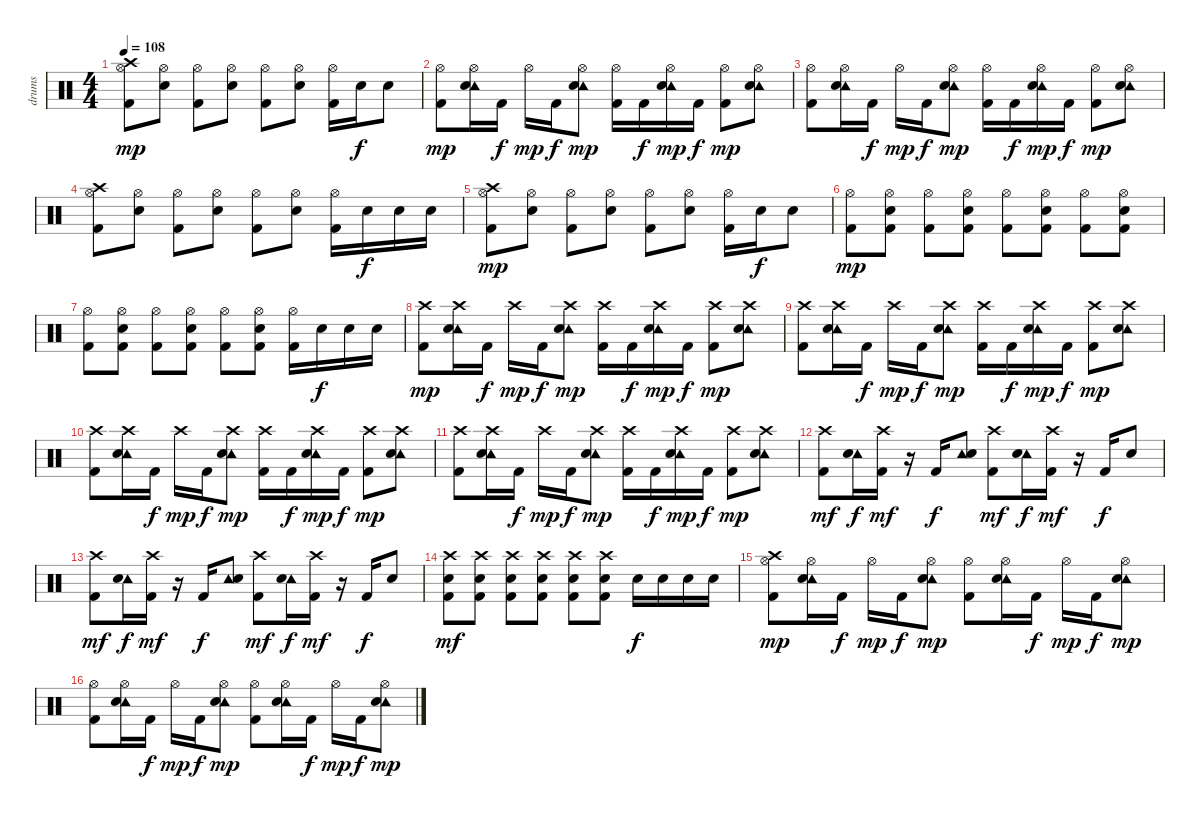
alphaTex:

\track ("drums" "drums") {instrument percussion}
\staff {score}
\articulation defaults
\ts (4 4)
\tempo 108
\clef neutral
\ks c
("Crash high (hit)" "Hi-Hat (open)" "Kick (hit) 2").8{dy mp} ("Hi-Hat (open)" "Snare (hit) 2").8 ("Hi-Hat (open)" "Kick (hit) 2").8 ("Hi-Hat (open)" "Snare (hit) 2").8 ("Hi-Hat (open)" "Kick (hit) 2").8 ("Hi-Hat (open)" "Snare (hit) 2").8 ("Hi-Hat (open)" "Kick (hit) 2").16 "Snare (hit) 2".16{dy f} "Snare (hit) 2".8 |
("Hi-Hat (open)" "Kick (hit) 2").8{dy mp} ("Tambourine (hit)" "Hi-Hat (open)" "Snare (hit) 2").16 "Kick (hit) 2".16{dy f} "Hi-Hat (open)".16{dy mp} "Kick (hit) 2".16{dy f} ("Tambourine (hit)" "Hi-Hat (open)" "Snare (hit) 2").8{dy mp} ("Hi-Hat (open)" "Kick (hit) 2").16 "Kick (hit) 2".16{dy f} ("Tambourine (hit)" "Hi-Hat (open)" "Snare (hit) 2").16{dy mp} "Kick (hit) 2".16{dy f} ("Hi-Hat (open)" "Kick (hit) 2").8{dy mp} ("Tambourine (hit)" "Hi-Hat (open)" "Snare (hit) 2").8 |
("Hi-Hat (open)" "Kick (hit) 2").8 ("Tambourine (hit)" "Hi-Hat (open)" "Snare (hit) 2").16 "Kick (hit) 2".16{dy f} "Hi-Hat (open)".16{dy mp} "Kick (hit) 2".16{dy f} ("Tambourine (hit)" "Hi-Hat (open)" "Snare (hit) 2").8{dy mp} ("Hi-Hat (open)" "Kick (hit) 2").16 "Kick (hit) 2".16{dy f} ("Tambourine (hit)" "Hi-Hat (open)" "Snare (hit) 2").16{dy mp} "Kick (hit) 2".16{dy f} ("Hi-Hat (open)" "Kick (hit) 2").8{dy mp} ("Tambourine (hit)" "Hi-Hat (open)" "Snare (hit) 2").8 |
("Crash high (hit)" "Hi-Hat (open)" "Kick (hit) 2").8 ("Hi-Hat (open)" "Snare (hit) 2").8 ("Hi-Hat (open)" "Kick (hit) 2").8 ("Hi-Hat (open)" "Snare (hit) 2").8 ("Hi-Hat (open)" "Kick (hit) 2").8 ("Hi-Hat (open)" "Snare (hit) 2").8 ("Hi-Hat (open)" "Kick (hit) 2").16 "Snare (hit) 2".16{dy f} "Snare (hit) 2".16 "Snare (hit) 2".16 |
("Crash high (hit)" "Hi-Hat (open)" "Kick (hit) 2").8{dy mp} ("Hi-Hat (open)" "Snare (hit) 2").8 ("Hi-Hat (open)" "Kick (hit) 2").8 ("Hi-Hat (open)" "Snare (hit) 2").8 ("Hi-Hat (open)" "Kick (hit) 2").8 ("Hi-Hat (open)" "Snare (hit) 2").8 ("Hi-Hat (open)" "Kick (hit) 2").16 "Snare (hit) 2".16{dy f} "Snare (hit) 2".8 |
("Hi-Hat (open)" "Kick (hit) 2").8{dy mp} ("Snare (hit) 2" "Hi-Hat (open)" "Kick (hit) 2").8 ("Hi-Hat (open)" "Kick (hit) 2").8 ("Snare (hit) 2" "Hi-Hat (open)" "Kick (hit) 2").8 ("Hi-Hat (open)" "Kick (hit) 2").8 ("Snare (hit) 2" "Hi-Hat (open)" "Kick (hit) 2").8 ("Hi-Hat (open)" "Kick (hit) 2").8 ("Snare (hit) 2" "Hi-Hat (open)" "Kick (hit) 2").8 |
("Hi-Hat (open)" "Kick (hit) 2").8 ("Snare (hit) 2" "Hi-Hat (open)" "Kick (hit) 2").8 ("Hi-Hat (open)" "Kick (hit) 2").8 ("Snare (hit) 2" "Hi-Hat (open)" "Kick (hit) 2").8 ("Hi-Hat (open)" "Kick (hit) 2").8 ("Snare (hit) 2" "Hi-Hat (open)" "Kick (hit) 2").8 ("Hi-Hat (open)" "Kick (hit) 2").16 "Snare (hit) 2".16{dy f} "Snare (hit) 2".16 "Snare (hit) 2".16 |
("Crash high (hit)" "Kick (hit) 2").8{dy mp} ("Tambourine (hit)" "Crash high (hit)" "Snare (hit) 2").16 "Kick (hit) 2".16{dy f} "Crash high (hit)".16{dy mp} "Kick (hit) 2".16{dy f} ("Tambourine (hit)" "Crash high (hit)" "Snare (hit) 2").8{dy mp} ("Crash high (hit)" "Kick (hit) 2").16 "Kick (hit) 2".16{dy f} ("Tambourine (hit)" "Crash high (hit)" "Snare (hit) 2").16{dy mp} "Kick (hit) 2".16{dy f} ("Crash high (hit)" "Kick (hit) 2").8{dy mp} ("Tambourine (hit)" "Crash high (hit)" "Snare (hit) 2").8 |
("Crash high (hit)" "Kick (hit) 2").8 ("Tambourine (hit)" "Crash high (hit)" "Snare (hit) 2").16 "Kick (hit) 2".16{dy f} "Crash high (hit)".16{dy mp} "Kick (hit) 2".16{dy f} ("Tambourine (hit)" "Crash high (hit)" "Snare (hit) 2").8{dy mp} ("Crash high (hit)" "Kick (hit) 2").16 "Kick (hit) 2".16{dy f} ("Tambourine (hit)" "Crash high (hit)" "Snare (hit) 2").16{dy mp} "Kick (hit) 2".16{dy f} ("Crash high (hit)" "Kick (hit) 2").8{dy mp} ("Tambourine (hit)" "Crash high (hit)" "Snare (hit) 2").8 |
("Crash high (hit)" "Kick (hit) 2").8 ("Tambourine (hit)" "Crash high (hit)" "Snare (hit) 2").16 "Kick (hit) 2".16{dy f} "Crash high (hit)".16{dy mp} "Kick (hit) 2".16{dy f} ("Tambourine (hit)" "Crash high (hit)" "Snare (hit) 2").8{dy mp} ("Crash high (hit)" "Kick (hit) 2").16 "Kick (hit) 2".16{dy f} ("Tambourine (hit)" "Crash high (hit)" "Snare (hit) 2").16{dy mp} "Kick (hit) 2".16{dy f} ("Crash high (hit)" "Kick (hit) 2").8{dy mp} ("Tambourine (hit)" "Crash high (hit)" "Snare (hit) 2").8 |
("Crash high (hit)" "Kick (hit) 2").8 ("Tambourine (hit)" "Crash high (hit)" "Snare (hit) 2").16 "Kick (hit) 2".16{dy f} "Crash high (hit)".16{dy mp} "Kick (hit) 2".16{dy f} ("Tambourine (hit)" "Crash high (hit)" "Snare (hit) 2").8{dy mp} ("Crash high (hit)" "Kick (hit) 2").16 "Kick (hit) 2".16{dy f} ("Tambourine (hit)" "Crash high (hit)" "Snare (hit) 2").16{dy mp} "Kick (hit) 2".16{dy f} ("Crash high (hit)" "Kick (hit) 2").8{dy mp} ("Tambourine (hit)" "Crash high (hit)" "Snare (hit) 2").8 |
("Crash high (hit)" "Kick (hit) 2").8{dy mf} ("Tambourine (hit)" "Snare (hit) 2").16{dy f} ("Crash high (hit)" "Kick (hit) 2").16{dy mf} r.16 "Kick (hit) 2".16{dy f} ("Tambourine (hit)" "Snare (hit) 2").8 ("Crash high (hit)" "Kick (hit) 2").8{dy mf} ("Tambourine (hit)" "Snare (hit) 2").16{dy f} ("Crash high (hit)" "Kick (hit) 2").16{dy mf} r.16 "Kick (hit) 2".16{dy f} "Snare (hit) 2".8 |
("Crash high (hit)" "Kick (hit) 2").8{dy mf} ("Tambourine (hit)" "Snare (hit) 2").16{dy f} ("Crash high (hit)" "Kick (hit) 2").16{dy mf} r.16 "Kick (hit) 2".16{dy f} ("Tambourine (hit)" "Snare (hit) 2").8 ("Crash high (hit)" "Kick (hit) 2").8{dy mf} ("Tambourine (hit)" "Snare (hit) 2").16{dy f} ("Crash high (hit)" "Kick (hit) 2").16{dy mf} r.16 "Kick (hit) 2".16{dy f} "Snare (hit) 2".8 |
("Crash high (hit)" "Snare (hit) 2" "Kick (hit) 2").8{dy mf} ("Crash high (hit)" "Snare (hit) 2" "Kick (hit) 2").8 ("Crash high (hit)" "Snare (hit) 2" "Kick (hit) 2").8 ("Crash high (hit)" "Snare (hit) 2" "Kick (hit) 2").8 ("Crash high (hit)" "Snare (hit) 2" "Kick (hit) 2").8 ("Crash high (hit)" "Snare (hit) 2" "Kick (hit) 2").8 "Snare (hit) 2".16{dy f} "Snare (hit) 2".16 "Snare (hit) 2".16 "Snare (hit) 2".16 |
("Crash high (hit)" "Hi-Hat (open)" "Kick (hit) 2").8{dy mp} ("Tambourine (hit)" "Hi-Hat (open)" "Snare (hit) 2").16 "Kick (hit) 2".16{dy f} "Hi-Hat (open)".16{dy mp} "Kick (hit) 2".16{dy f} ("Tambourine (hit)" "Hi-Hat (open)" "Snare (hit) 2").8{dy mp} ("Hi-Hat (open)" "Kick (hit) 2").8 ("Tambourine (hit)" "Hi-Hat (open)" "Snare (hit) 2").16 "Kick (hit) 2".16{dy f} "Hi-Hat (open)".16{dy mp} "Kick (hit) 2".16{dy f} ("Tambourine (hit)" "Hi-Hat (open)" "Snare (hit) 2").8{dy mp} |
("Hi-Hat (open)" "Kick (hit) 2").8 ("Tambourine (hit)" "Hi-Hat (open)" "Snare (hit) 2").16 "Kick (hit) 2".16{dy f} "Hi-Hat (open)".16{dy mp} "Kick (hit) 2".16{dy f} ("Tambourine (hit)" "Hi-Hat (open)" "Snare (hit) 2").8{dy mp} ("Hi-Hat (open)" "Kick (hit) 2").8 ("Tambourine (hit)" "Hi-Hat (open)" "Snare (hit) 2").16 "Kick (hit) 2".16{dy f} "Hi-Hat (open)".16{dy mp} "Kick (hit) 2".16{dy f} ("Tambourine (hit)" "Hi-Hat (open)" "Snare (hit) 2").8{dy mp}
